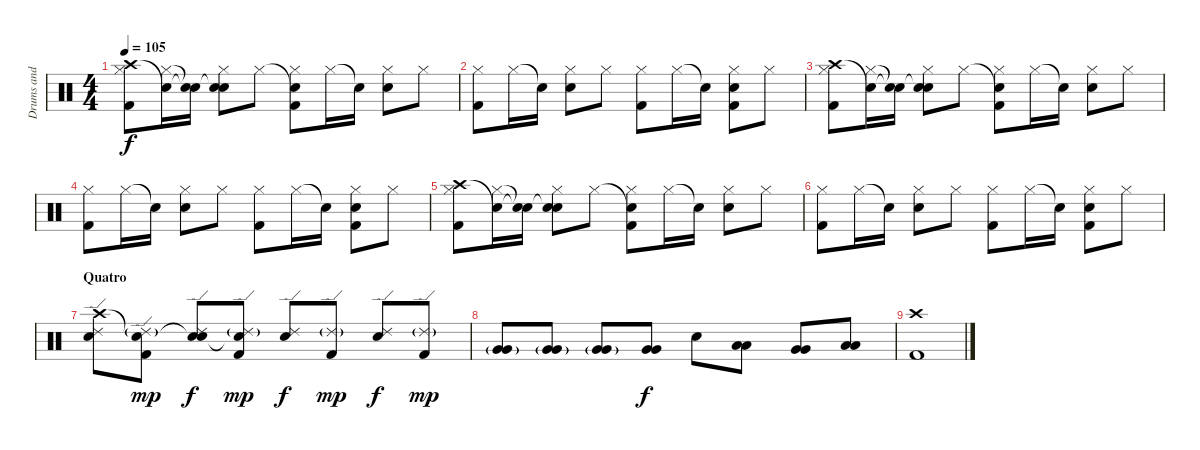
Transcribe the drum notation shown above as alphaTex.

\track ("Drums and scratch" "Drums and ") {instrument percussion}
\staff {score}
\articulation defaults
\ts (4 4)
\tempo 105
\clef neutral
\ks c
("Crash high (hit)" "Hi-Hat (closed)" "Kick (hit) 2").8{dy f} ("Snare (hit)"{t} "Hi-Hat (closed)").16 ("Snare (hit)"{t} "Snare (hit)"{t}).16 ("Snare (hit)"{t} "Hi-Hat (closed)" "Electric Snare (hit)").8 "Hi-Hat (closed)".8 ("Snare (hit)"{t} "Hi-Hat (closed)" "Kick (hit) 2").8 "Hi-Hat (closed)".16 "Snare (hit)"{t}.16 ("Hi-Hat (closed)" "Electric Snare (hit)").8 "Hi-Hat (closed)".8 |
("Hi-Hat (closed)" "Kick (hit) 2").8 "Hi-Hat (closed)".16 "Snare (hit)"{t}.16 ("Hi-Hat (closed)" "Electric Snare (hit)").8 "Hi-Hat (closed)".8 ("Hi-Hat (closed)" "Kick (hit) 2").8 "Hi-Hat (closed)".16 "Snare (hit)"{t}.16 ("Hi-Hat (closed)" "Electric Snare (hit)" "Kick (hit) 2").8 "Hi-Hat (closed)".8 |
("Crash high (hit)" "Hi-Hat (closed)" "Kick (hit) 2").8 ("Snare (hit)"{t} "Hi-Hat (closed)").16 ("Snare (hit)"{t} "Snare (hit)"{t}).16 ("Snare (hit)"{t} "Hi-Hat (closed)" "Electric Snare (hit)").8 "Hi-Hat (closed)".8 ("Snare (hit)"{t} "Hi-Hat (closed)" "Kick (hit) 2").8 "Hi-Hat (closed)".16 "Snare (hit)"{t}.16 ("Hi-Hat (closed)" "Electric Snare (hit)").8 "Hi-Hat (closed)".8 |
("Hi-Hat (closed)" "Kick (hit) 2").8 "Hi-Hat (closed)".16 "Snare (hit)"{t}.16 ("Hi-Hat (closed)" "Electric Snare (hit)").8 "Hi-Hat (closed)".8 ("Hi-Hat (closed)" "Kick (hit) 2").8 "Hi-Hat (closed)".16 "Snare (hit)"{t}.16 ("Hi-Hat (closed)" "Electric Snare (hit)" "Kick (hit) 2").8 "Hi-Hat (closed)".8 |
("Crash high (hit)" "Hi-Hat (closed)" "Kick (hit) 2").8 ("Snare (hit)"{t} "Hi-Hat (closed)").16 ("Snare (hit)"{t} "Snare (hit)"{t}).16 ("Snare (hit)"{t} "Hi-Hat (closed)" "Electric Snare (hit)").8 "Hi-Hat (closed)".8 ("Snare (hit)"{t} "Hi-Hat (closed)" "Kick (hit) 2").8 "Hi-Hat (closed)".16 "Snare (hit)"{t}.16 ("Hi-Hat (closed)" "Electric Snare (hit)").8 "Hi-Hat (closed)".8 |
("Hi-Hat (closed)" "Kick (hit) 2").8 "Hi-Hat (closed)".16 "Snare (hit)"{t}.16 ("Hi-Hat (closed)" "Electric Snare (hit)").8 "Hi-Hat (closed)".8 ("Hi-Hat (closed)" "Kick (hit) 2").8 "Hi-Hat (closed)".16 "Snare (hit)"{t}.16 ("Hi-Hat (closed)" "Electric Snare (hit)" "Kick (hit) 2").8 "Hi-Hat (closed)".8 |
\section ("" "Quatro")
("Crash high (hit)" "Ride (edge) 2" "Electric Snare (hit)").8 ("Snare (hit)"{t} "Ride (edge) 2"{g} "Kick (hit) 2").8{dy mp} ("Snare (hit)"{t} "Ride (edge) 2" "Electric Snare (hit)").8{dy f} ("Snare (hit)"{t} "Ride (edge) 2"{g} "Kick (hit) 2").8{dy mp} ("Ride (edge) 2" "Electric Snare (hit)").8{dy f} ("Ride (edge) 2"{g} "Kick (hit) 2").8{dy mp} ("Ride (edge) 2" "Electric Snare (hit)").8{dy f} ("Ride (edge) 2"{g} "Kick (hit) 2").8{dy mp} |
("Very Low Tom (hit)"{g} "Very Low Tom (hit)").8 ("Very Low Tom (hit)"{g} "Very Low Tom (hit)").8 ("Very Low Tom (hit)"{g} "Very Low Tom (hit)").8 ("Very Low Tom (hit)" "Very Low Tom (hit)").8{dy f} "Electric Snare (hit)".8 ("Low Tom (hit)" "Low Tom (hit)").8 ("Very Low Tom (hit)" "Very Low Tom (hit)").8 ("Low Floor Tom (hit)" "Low Floor Tom (hit)").8 |
("Crash high (hit)" "Kick (hit) 2").1
